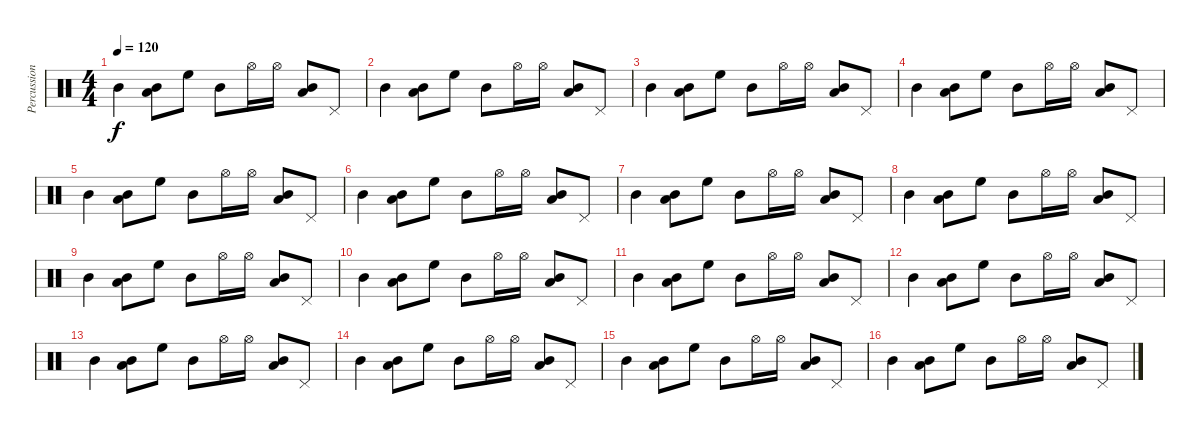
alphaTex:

\track ("Percussion" "Percussion") {instrument percussion}
\staff {score}
\articulation defaults
\ts (4 4)
\tempo 120
\clef neutral
\ks c "Mid Tom (hit)".4{dy f}
("Mid Tom (hit)" "Low Floor Tom (hit)").8 "High Floor Tom (hit)".8 "Mid Tom (hit)".8 "Hi-Hat (open)".16 "Hi-Hat (open)".16 ("Mid Tom (hit)" "Low Floor Tom (hit)").8 "Pedal Hi-Hat (hit)".8 |
"Mid Tom (hit)".4 ("Mid Tom (hit)" "Low Floor Tom (hit)").8 "High Floor Tom (hit)".8 "Mid Tom (hit)".8 "Hi-Hat (open)".16 "Hi-Hat (open)".16 ("Mid Tom (hit)" "Low Floor Tom (hit)").8 "Pedal Hi-Hat (hit)".8 |
"Mid Tom (hit)".4 ("Mid Tom (hit)" "Low Floor Tom (hit)").8 "High Floor Tom (hit)".8 "Mid Tom (hit)".8 "Hi-Hat (open)".16 "Hi-Hat (open)".16 ("Mid Tom (hit)" "Low Floor Tom (hit)").8 "Pedal Hi-Hat (hit)".8 |
"Mid Tom (hit)".4 ("Mid Tom (hit)" "Low Floor Tom (hit)").8 "High Floor Tom (hit)".8 "Mid Tom (hit)".8 "Hi-Hat (open)".16 "Hi-Hat (open)".16 ("Mid Tom (hit)" "Low Floor Tom (hit)").8 "Pedal Hi-Hat (hit)".8 |
"Mid Tom (hit)".4 ("Mid Tom (hit)" "Low Floor Tom (hit)").8 "High Floor Tom (hit)".8 "Mid Tom (hit)".8 "Hi-Hat (open)".16 "Hi-Hat (open)".16 ("Mid Tom (hit)" "Low Floor Tom (hit)").8 "Pedal Hi-Hat (hit)".8 |
"Mid Tom (hit)".4 ("Mid Tom (hit)" "Low Floor Tom (hit)").8 "High Floor Tom (hit)".8 "Mid Tom (hit)".8 "Hi-Hat (open)".16 "Hi-Hat (open)".16 ("Mid Tom (hit)" "Low Floor Tom (hit)").8 "Pedal Hi-Hat (hit)".8 |
"Mid Tom (hit)".4 ("Mid Tom (hit)" "Low Floor Tom (hit)").8 "High Floor Tom (hit)".8 "Mid Tom (hit)".8 "Hi-Hat (open)".16 "Hi-Hat (open)".16 ("Mid Tom (hit)" "Low Floor Tom (hit)").8 "Pedal Hi-Hat (hit)".8 |
"Mid Tom (hit)".4 ("Mid Tom (hit)" "Low Floor Tom (hit)").8 "High Floor Tom (hit)".8 "Mid Tom (hit)".8 "Hi-Hat (open)".16 "Hi-Hat (open)".16 ("Mid Tom (hit)" "Low Floor Tom (hit)").8 "Pedal Hi-Hat (hit)".8 |
"Mid Tom (hit)".4 ("Mid Tom (hit)" "Low Floor Tom (hit)").8 "High Floor Tom (hit)".8 "Mid Tom (hit)".8 "Hi-Hat (open)".16 "Hi-Hat (open)".16 ("Mid Tom (hit)" "Low Floor Tom (hit)").8 "Pedal Hi-Hat (hit)".8 |
"Mid Tom (hit)".4 ("Mid Tom (hit)" "Low Floor Tom (hit)").8 "High Floor Tom (hit)".8 "Mid Tom (hit)".8 "Hi-Hat (open)".16 "Hi-Hat (open)".16 ("Mid Tom (hit)" "Low Floor Tom (hit)").8 "Pedal Hi-Hat (hit)".8 |
"Mid Tom (hit)".4 ("Mid Tom (hit)" "Low Floor Tom (hit)").8 "High Floor Tom (hit)".8 "Mid Tom (hit)".8 "Hi-Hat (open)".16 "Hi-Hat (open)".16 ("Mid Tom (hit)" "Low Floor Tom (hit)").8 "Pedal Hi-Hat (hit)".8 |
"Mid Tom (hit)".4 ("Mid Tom (hit)" "Low Floor Tom (hit)").8 "High Floor Tom (hit)".8 "Mid Tom (hit)".8 "Hi-Hat (open)".16 "Hi-Hat (open)".16 ("Mid Tom (hit)" "Low Floor Tom (hit)").8 "Pedal Hi-Hat (hit)".8 |
"Mid Tom (hit)".4 ("Mid Tom (hit)" "Low Floor Tom (hit)").8 "High Floor Tom (hit)".8 "Mid Tom (hit)".8 "Hi-Hat (open)".16 "Hi-Hat (open)".16 ("Mid Tom (hit)" "Low Floor Tom (hit)").8 "Pedal Hi-Hat (hit)".8 |
"Mid Tom (hit)".4 ("Mid Tom (hit)" "Low Floor Tom (hit)").8 "High Floor Tom (hit)".8 "Mid Tom (hit)".8 "Hi-Hat (open)".16 "Hi-Hat (open)".16 ("Mid Tom (hit)" "Low Floor Tom (hit)").8 "Pedal Hi-Hat (hit)".8 |
"Mid Tom (hit)".4 ("Mid Tom (hit)" "Low Floor Tom (hit)").8 "High Floor Tom (hit)".8 "Mid Tom (hit)".8 "Hi-Hat (open)".16 "Hi-Hat (open)".16 ("Mid Tom (hit)" "Low Floor Tom (hit)").8 "Pedal Hi-Hat (hit)".8 |
"Mid Tom (hit)".4 ("Mid Tom (hit)" "Low Floor Tom (hit)").8 "High Floor Tom (hit)".8 "Mid Tom (hit)".8 "Hi-Hat (open)".16 "Hi-Hat (open)".16 ("Mid Tom (hit)" "Low Floor Tom (hit)").8 "Pedal Hi-Hat (hit)".8
